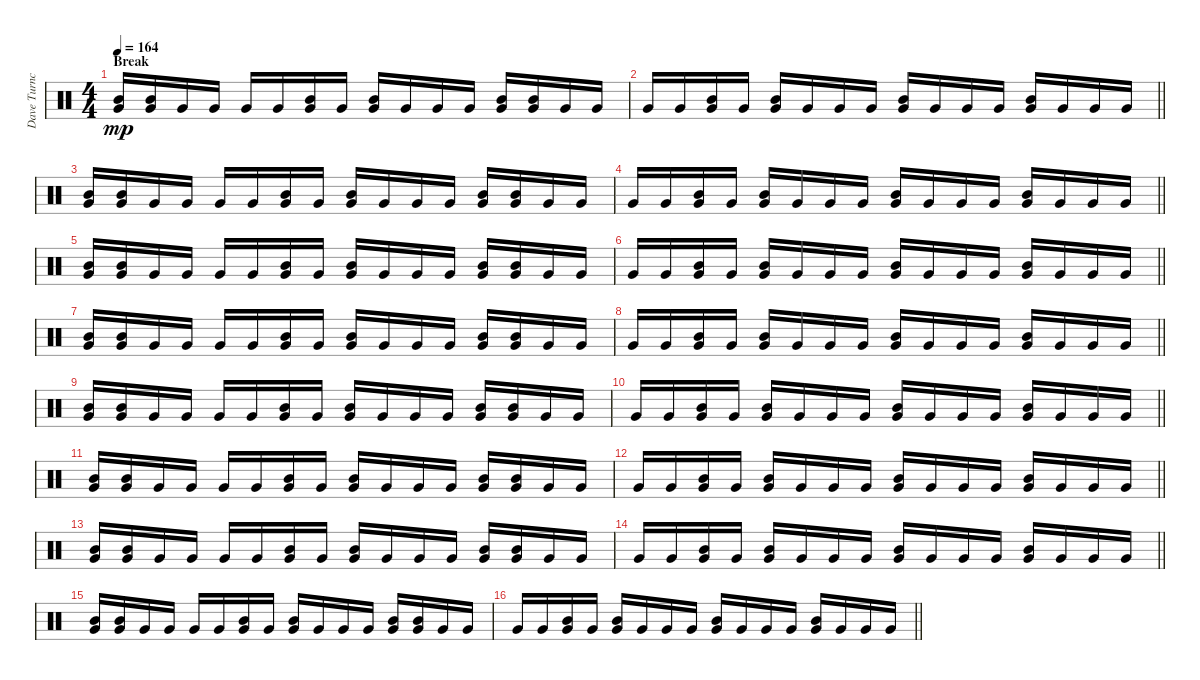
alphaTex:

\track ("Dave Turncrantz" "Dave Turnc") {instrument percussion}
\staff {score}
\articulation defaults
\ts (4 4)
\section ("" "Break")
\tempo 164
\clef neutral
\ks c
("Mid Tom (hit)" "Very Low Tom (hit)").16{dy mp} ("Mid Tom (hit)" "Very Low Tom (hit)").16 "Very Low Tom (hit)".16 "Very Low Tom (hit)".16 "Very Low Tom (hit)".16 "Very Low Tom (hit)".16 ("Mid Tom (hit)" "Very Low Tom (hit)").16 "Very Low Tom (hit)".16 ("Mid Tom (hit)" "Very Low Tom (hit)").16 "Very Low Tom (hit)".16 "Very Low Tom (hit)".16 "Very Low Tom (hit)".16 ("Mid Tom (hit)" "Very Low Tom (hit)").16 ("Mid Tom (hit)" "Very Low Tom (hit)").16 "Very Low Tom (hit)".16 "Very Low Tom (hit)".16 |
\barLineRight lightlight "Very Low Tom (hit)".16 "Very Low Tom (hit)".16
("Mid Tom (hit)" "Very Low Tom (hit)").16 "Very Low Tom (hit)".16 ("Mid Tom (hit)" "Very Low Tom (hit)").16 "Very Low Tom (hit)".16 "Very Low Tom (hit)".16 "Very Low Tom (hit)".16 ("Mid Tom (hit)" "Very Low Tom (hit)").16 "Very Low Tom (hit)".16 "Very Low Tom (hit)".16 "Very Low Tom (hit)".16 ("Mid Tom (hit)" "Very Low Tom (hit)").16 "Very Low Tom (hit)".16 "Very Low Tom (hit)".16 "Very Low Tom (hit)".16 |
\section ("" "")
("Mid Tom (hit)" "Very Low Tom (hit)").16 ("Mid Tom (hit)" "Very Low Tom (hit)").16 "Very Low Tom (hit)".16 "Very Low Tom (hit)".16 "Very Low Tom (hit)".16 "Very Low Tom (hit)".16 ("Mid Tom (hit)" "Very Low Tom (hit)").16 "Very Low Tom (hit)".16 ("Mid Tom (hit)" "Very Low Tom (hit)").16 "Very Low Tom (hit)".16 "Very Low Tom (hit)".16 "Very Low Tom (hit)".16 ("Mid Tom (hit)" "Very Low Tom (hit)").16 ("Mid Tom (hit)" "Very Low Tom (hit)").16 "Very Low Tom (hit)".16 "Very Low Tom (hit)".16 |
\barLineRight lightlight "Very Low Tom (hit)".16 "Very Low Tom (hit)".16
("Mid Tom (hit)" "Very Low Tom (hit)").16 "Very Low Tom (hit)".16 ("Mid Tom (hit)" "Very Low Tom (hit)").16 "Very Low Tom (hit)".16 "Very Low Tom (hit)".16 "Very Low Tom (hit)".16 ("Mid Tom (hit)" "Very Low Tom (hit)").16 "Very Low Tom (hit)".16 "Very Low Tom (hit)".16 "Very Low Tom (hit)".16 ("Mid Tom (hit)" "Very Low Tom (hit)").16 "Very Low Tom (hit)".16 "Very Low Tom (hit)".16 "Very Low Tom (hit)".16 |
\section ("" "")
("Mid Tom (hit)" "Very Low Tom (hit)").16 ("Mid Tom (hit)" "Very Low Tom (hit)").16 "Very Low Tom (hit)".16 "Very Low Tom (hit)".16 "Very Low Tom (hit)".16 "Very Low Tom (hit)".16 ("Mid Tom (hit)" "Very Low Tom (hit)").16 "Very Low Tom (hit)".16 ("Mid Tom (hit)" "Very Low Tom (hit)").16 "Very Low Tom (hit)".16 "Very Low Tom (hit)".16 "Very Low Tom (hit)".16 ("Mid Tom (hit)" "Very Low Tom (hit)").16 ("Mid Tom (hit)" "Very Low Tom (hit)").16 "Very Low Tom (hit)".16 "Very Low Tom (hit)".16 |
\barLineRight lightlight "Very Low Tom (hit)".16 "Very Low Tom (hit)".16
("Mid Tom (hit)" "Very Low Tom (hit)").16 "Very Low Tom (hit)".16 ("Mid Tom (hit)" "Very Low Tom (hit)").16 "Very Low Tom (hit)".16 "Very Low Tom (hit)".16 "Very Low Tom (hit)".16 ("Mid Tom (hit)" "Very Low Tom (hit)").16 "Very Low Tom (hit)".16 "Very Low Tom (hit)".16 "Very Low Tom (hit)".16 ("Mid Tom (hit)" "Very Low Tom (hit)").16 "Very Low Tom (hit)".16 "Very Low Tom (hit)".16 "Very Low Tom (hit)".16 |
\section ("" "")
("Mid Tom (hit)" "Very Low Tom (hit)").16 ("Mid Tom (hit)" "Very Low Tom (hit)").16 "Very Low Tom (hit)".16 "Very Low Tom (hit)".16 "Very Low Tom (hit)".16 "Very Low Tom (hit)".16 ("Mid Tom (hit)" "Very Low Tom (hit)").16 "Very Low Tom (hit)".16 ("Mid Tom (hit)" "Very Low Tom (hit)").16 "Very Low Tom (hit)".16 "Very Low Tom (hit)".16 "Very Low Tom (hit)".16 ("Mid Tom (hit)" "Very Low Tom (hit)").16 ("Mid Tom (hit)" "Very Low Tom (hit)").16 "Very Low Tom (hit)".16 "Very Low Tom (hit)".16 |
\barLineRight lightlight "Very Low Tom (hit)".16 "Very Low Tom (hit)".16
("Mid Tom (hit)" "Very Low Tom (hit)").16 "Very Low Tom (hit)".16 ("Mid Tom (hit)" "Very Low Tom (hit)").16 "Very Low Tom (hit)".16 "Very Low Tom (hit)".16 "Very Low Tom (hit)".16 ("Mid Tom (hit)" "Very Low Tom (hit)").16 "Very Low Tom (hit)".16 "Very Low Tom (hit)".16 "Very Low Tom (hit)".16 ("Mid Tom (hit)" "Very Low Tom (hit)").16 "Very Low Tom (hit)".16 "Very Low Tom (hit)".16 "Very Low Tom (hit)".16 |
\section ("" "")
("Mid Tom (hit)" "Very Low Tom (hit)").16 ("Mid Tom (hit)" "Very Low Tom (hit)").16 "Very Low Tom (hit)".16 "Very Low Tom (hit)".16 "Very Low Tom (hit)".16 "Very Low Tom (hit)".16 ("Mid Tom (hit)" "Very Low Tom (hit)").16 "Very Low Tom (hit)".16 ("Mid Tom (hit)" "Very Low Tom (hit)").16 "Very Low Tom (hit)".16 "Very Low Tom (hit)".16 "Very Low Tom (hit)".16 ("Mid Tom (hit)" "Very Low Tom (hit)").16 ("Mid Tom (hit)" "Very Low Tom (hit)").16 "Very Low Tom (hit)".16 "Very Low Tom (hit)".16 |
\barLineRight lightlight "Very Low Tom (hit)".16 "Very Low Tom (hit)".16
("Mid Tom (hit)" "Very Low Tom (hit)").16 "Very Low Tom (hit)".16 ("Mid Tom (hit)" "Very Low Tom (hit)").16 "Very Low Tom (hit)".16 "Very Low Tom (hit)".16 "Very Low Tom (hit)".16 ("Mid Tom (hit)" "Very Low Tom (hit)").16 "Very Low Tom (hit)".16 "Very Low Tom (hit)".16 "Very Low Tom (hit)".16 ("Mid Tom (hit)" "Very Low Tom (hit)").16 "Very Low Tom (hit)".16 "Very Low Tom (hit)".16 "Very Low Tom (hit)".16 |
\section ("" "")
("Mid Tom (hit)" "Very Low Tom (hit)").16 ("Mid Tom (hit)" "Very Low Tom (hit)").16 "Very Low Tom (hit)".16 "Very Low Tom (hit)".16 "Very Low Tom (hit)".16 "Very Low Tom (hit)".16 ("Mid Tom (hit)" "Very Low Tom (hit)").16 "Very Low Tom (hit)".16 ("Mid Tom (hit)" "Very Low Tom (hit)").16 "Very Low Tom (hit)".16 "Very Low Tom (hit)".16 "Very Low Tom (hit)".16 ("Mid Tom (hit)" "Very Low Tom (hit)").16 ("Mid Tom (hit)" "Very Low Tom (hit)").16 "Very Low Tom (hit)".16 "Very Low Tom (hit)".16 |
\barLineRight lightlight "Very Low Tom (hit)".16 "Very Low Tom (hit)".16
("Mid Tom (hit)" "Very Low Tom (hit)").16 "Very Low Tom (hit)".16 ("Mid Tom (hit)" "Very Low Tom (hit)").16 "Very Low Tom (hit)".16 "Very Low Tom (hit)".16 "Very Low Tom (hit)".16 ("Mid Tom (hit)" "Very Low Tom (hit)").16 "Very Low Tom (hit)".16 "Very Low Tom (hit)".16 "Very Low Tom (hit)".16 ("Mid Tom (hit)" "Very Low Tom (hit)").16 "Very Low Tom (hit)".16 "Very Low Tom (hit)".16 "Very Low Tom (hit)".16 |
\section ("" "")
("Mid Tom (hit)" "Very Low Tom (hit)").16 ("Mid Tom (hit)" "Very Low Tom (hit)").16 "Very Low Tom (hit)".16 "Very Low Tom (hit)".16 "Very Low Tom (hit)".16 "Very Low Tom (hit)".16 ("Mid Tom (hit)" "Very Low Tom (hit)").16 "Very Low Tom (hit)".16 ("Mid Tom (hit)" "Very Low Tom (hit)").16 "Very Low Tom (hit)".16 "Very Low Tom (hit)".16 "Very Low Tom (hit)".16 ("Mid Tom (hit)" "Very Low Tom (hit)").16 ("Mid Tom (hit)" "Very Low Tom (hit)").16 "Very Low Tom (hit)".16 "Very Low Tom (hit)".16 |
\barLineRight lightlight "Very Low Tom (hit)".16 "Very Low Tom (hit)".16
("Mid Tom (hit)" "Very Low Tom (hit)").16 "Very Low Tom (hit)".16 ("Mid Tom (hit)" "Very Low Tom (hit)").16 "Very Low Tom (hit)".16 "Very Low Tom (hit)".16 "Very Low Tom (hit)".16 ("Mid Tom (hit)" "Very Low Tom (hit)").16 "Very Low Tom (hit)".16 "Very Low Tom (hit)".16 "Very Low Tom (hit)".16 ("Mid Tom (hit)" "Very Low Tom (hit)").16 "Very Low Tom (hit)".16 "Very Low Tom (hit)".16 "Very Low Tom (hit)".16 |
\section ("" "")
("Mid Tom (hit)" "Very Low Tom (hit)").16 ("Mid Tom (hit)" "Very Low Tom (hit)").16 "Very Low Tom (hit)".16 "Very Low Tom (hit)".16 "Very Low Tom (hit)".16 "Very Low Tom (hit)".16 ("Mid Tom (hit)" "Very Low Tom (hit)").16 "Very Low Tom (hit)".16 ("Mid Tom (hit)" "Very Low Tom (hit)").16 "Very Low Tom (hit)".16 "Very Low Tom (hit)".16 "Very Low Tom (hit)".16 ("Mid Tom (hit)" "Very Low Tom (hit)").16 ("Mid Tom (hit)" "Very Low Tom (hit)").16 "Very Low Tom (hit)".16 "Very Low Tom (hit)".16 |
\barLineRight lightlight "Very Low Tom (hit)".16 "Very Low Tom (hit)".16
("Mid Tom (hit)" "Very Low Tom (hit)").16 "Very Low Tom (hit)".16 ("Mid Tom (hit)" "Very Low Tom (hit)").16 "Very Low Tom (hit)".16 "Very Low Tom (hit)".16 "Very Low Tom (hit)".16 ("Mid Tom (hit)" "Very Low Tom (hit)").16 "Very Low Tom (hit)".16 "Very Low Tom (hit)".16 "Very Low Tom (hit)".16 ("Mid Tom (hit)" "Very Low Tom (hit)").16 "Very Low Tom (hit)".16 "Very Low Tom (hit)".16 "Very Low Tom (hit)".16
